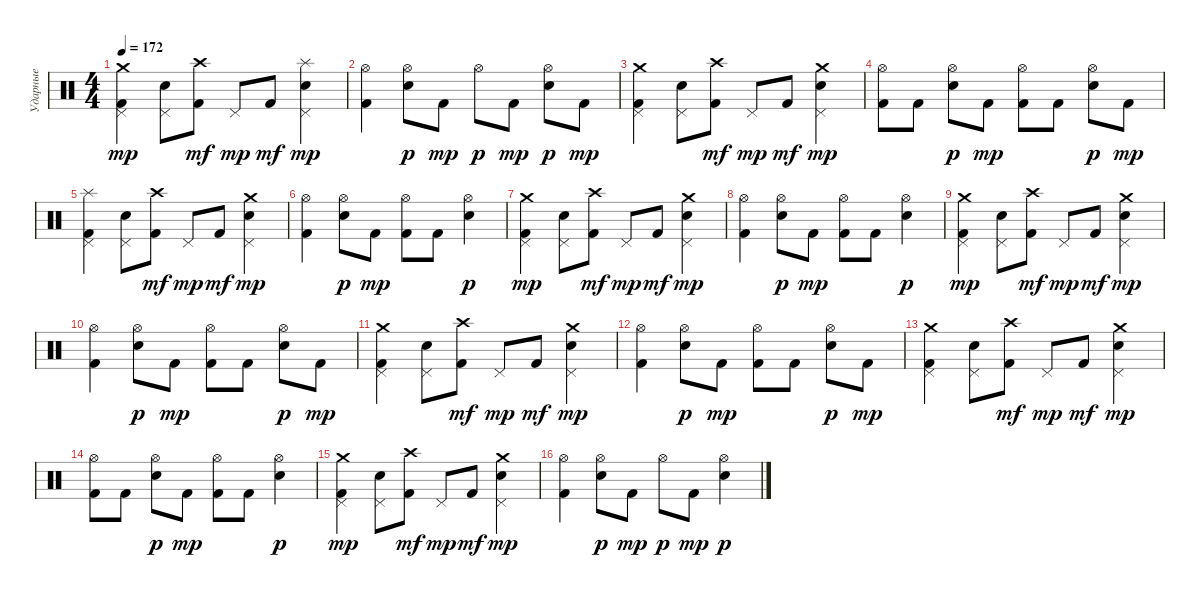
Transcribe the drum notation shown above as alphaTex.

\track ("Ударные" "Ударные") {instrument percussion}
\staff {score}
\articulation defaults
\ts (4 4)
\tempo 172
\clef neutral
\ks c
("Crash medium (hit)" "Kick (hit) 2" "Pedal Hi-Hat (hit)").4{dy mp} ("Electric Snare (hit)" "Pedal Hi-Hat (hit)").8 ("Crash high (hit)" "Kick (hit) 2").8{dy mf} "Pedal Hi-Hat (hit)".8{dy mp} "Kick (hit) 2".8{dy mf} ("Splash (hit)" "Electric Snare (hit)" "Pedal Hi-Hat (hit)").4{dy mp} |
("Hi-Hat (open)" "Kick (hit) 2").4 ("Hi-Hat (open)" "Electric Snare (hit)").8{dy p} "Kick (hit) 2".8{dy mp} "Hi-Hat (open)".8{dy p} "Kick (hit) 2".8{dy mp} ("Hi-Hat (open)" "Electric Snare (hit)").8{dy p} "Kick (hit) 2".8{dy mp} |
("Crash medium (hit)" "Kick (hit) 2" "Pedal Hi-Hat (hit)").4 ("Electric Snare (hit)" "Pedal Hi-Hat (hit)").8 ("Crash high (hit)" "Kick (hit) 2").8{dy mf} "Pedal Hi-Hat (hit)".8{dy mp} "Kick (hit) 2".8{dy mf} ("Crash medium (hit)" "Electric Snare (hit)" "Pedal Hi-Hat (hit)").4{dy mp} |
("Hi-Hat (open)" "Kick (hit) 2").8 "Kick (hit) 2".8 ("Hi-Hat (open)" "Electric Snare (hit)").8{dy p} "Kick (hit) 2".8{dy mp} ("Hi-Hat (open)" "Kick (hit) 2").8 "Kick (hit) 2".8 ("Hi-Hat (open)" "Electric Snare (hit)").8{dy p} "Kick (hit) 2".8{dy mp} |
("Splash (hit)" "Kick (hit) 2" "Pedal Hi-Hat (hit)").4 ("Electric Snare (hit)" "Pedal Hi-Hat (hit)").8 ("Crash high (hit)" "Kick (hit) 2").8{dy mf} "Pedal Hi-Hat (hit)".8{dy mp} "Kick (hit) 2".8{dy mf} ("Crash medium (hit)" "Electric Snare (hit)" "Pedal Hi-Hat (hit)").4{dy mp} |
("Hi-Hat (open)" "Kick (hit) 2").4 ("Hi-Hat (open)" "Electric Snare (hit)").8{dy p} "Kick (hit) 2".8{dy mp} ("Hi-Hat (open)" "Kick (hit) 2").8 "Kick (hit) 2".8 ("Hi-Hat (open)" "Electric Snare (hit)").4{dy p} |
("Crash medium (hit)" "Kick (hit) 2" "Pedal Hi-Hat (hit)").4{dy mp} ("Electric Snare (hit)" "Pedal Hi-Hat (hit)").8 ("Crash high (hit)" "Kick (hit) 2").8{dy mf} "Pedal Hi-Hat (hit)".8{dy mp} "Kick (hit) 2".8{dy mf} ("Crash medium (hit)" "Electric Snare (hit)" "Pedal Hi-Hat (hit)").4{dy mp} |
("Hi-Hat (open)" "Kick (hit) 2").4 ("Hi-Hat (open)" "Electric Snare (hit)").8{dy p} "Kick (hit) 2".8{dy mp} ("Hi-Hat (open)" "Kick (hit) 2").8 "Kick (hit) 2".8 ("Hi-Hat (open)" "Electric Snare (hit)").4{dy p} |
("Crash medium (hit)" "Kick (hit) 2" "Pedal Hi-Hat (hit)").4{dy mp} ("Electric Snare (hit)" "Pedal Hi-Hat (hit)").8 ("Crash high (hit)" "Kick (hit) 2").8{dy mf} "Pedal Hi-Hat (hit)".8{dy mp} "Kick (hit) 2".8{dy mf} ("Crash medium (hit)" "Electric Snare (hit)" "Pedal Hi-Hat (hit)").4{dy mp} |
("Hi-Hat (open)" "Kick (hit) 2").4 ("Hi-Hat (open)" "Electric Snare (hit)").8{dy p} "Kick (hit) 2".8{dy mp} ("Hi-Hat (open)" "Kick (hit) 2").8 "Kick (hit) 2".8 ("Hi-Hat (open)" "Electric Snare (hit)").8{dy p} "Kick (hit) 2".8{dy mp} |
("Crash medium (hit)" "Kick (hit) 2" "Pedal Hi-Hat (hit)").4 ("Electric Snare (hit)" "Pedal Hi-Hat (hit)").8 ("Crash high (hit)" "Kick (hit) 2").8{dy mf} "Pedal Hi-Hat (hit)".8{dy mp} "Kick (hit) 2".8{dy mf} ("Crash medium (hit)" "Electric Snare (hit)" "Pedal Hi-Hat (hit)").4{dy mp} |
("Hi-Hat (open)" "Kick (hit) 2").4 ("Hi-Hat (open)" "Electric Snare (hit)").8{dy p} "Kick (hit) 2".8{dy mp} ("Hi-Hat (open)" "Kick (hit) 2").8 "Kick (hit) 2".8 ("Hi-Hat (open)" "Electric Snare (hit)").8{dy p} "Kick (hit) 2".8{dy mp} |
("Crash medium (hit)" "Kick (hit) 2" "Pedal Hi-Hat (hit)").4 ("Electric Snare (hit)" "Pedal Hi-Hat (hit)").8 ("Crash high (hit)" "Kick (hit) 2").8{dy mf} "Pedal Hi-Hat (hit)".8{dy mp} "Kick (hit) 2".8{dy mf} ("Crash medium (hit)" "Electric Snare (hit)" "Pedal Hi-Hat (hit)").4{dy mp} |
("Hi-Hat (open)" "Kick (hit) 2").8 "Kick (hit) 2".8 ("Hi-Hat (open)" "Electric Snare (hit)").8{dy p} "Kick (hit) 2".8{dy mp} ("Hi-Hat (open)" "Kick (hit) 2").8 "Kick (hit) 2".8 ("Hi-Hat (open)" "Electric Snare (hit)").4{dy p} |
("Crash medium (hit)" "Kick (hit) 2" "Pedal Hi-Hat (hit)").4{dy mp} ("Electric Snare (hit)" "Pedal Hi-Hat (hit)").8 ("Crash high (hit)" "Kick (hit) 2").8{dy mf} "Pedal Hi-Hat (hit)".8{dy mp} "Kick (hit) 2".8{dy mf} ("Crash medium (hit)" "Electric Snare (hit)" "Pedal Hi-Hat (hit)").4{dy mp} |
("Hi-Hat (open)" "Kick (hit) 2").4 ("Hi-Hat (open)" "Electric Snare (hit)").8{dy p} "Kick (hit) 2".8{dy mp} "Hi-Hat (open)".8{dy p} "Kick (hit) 2".8{dy mp} ("Hi-Hat (open)" "Electric Snare (hit)").4{dy p}
